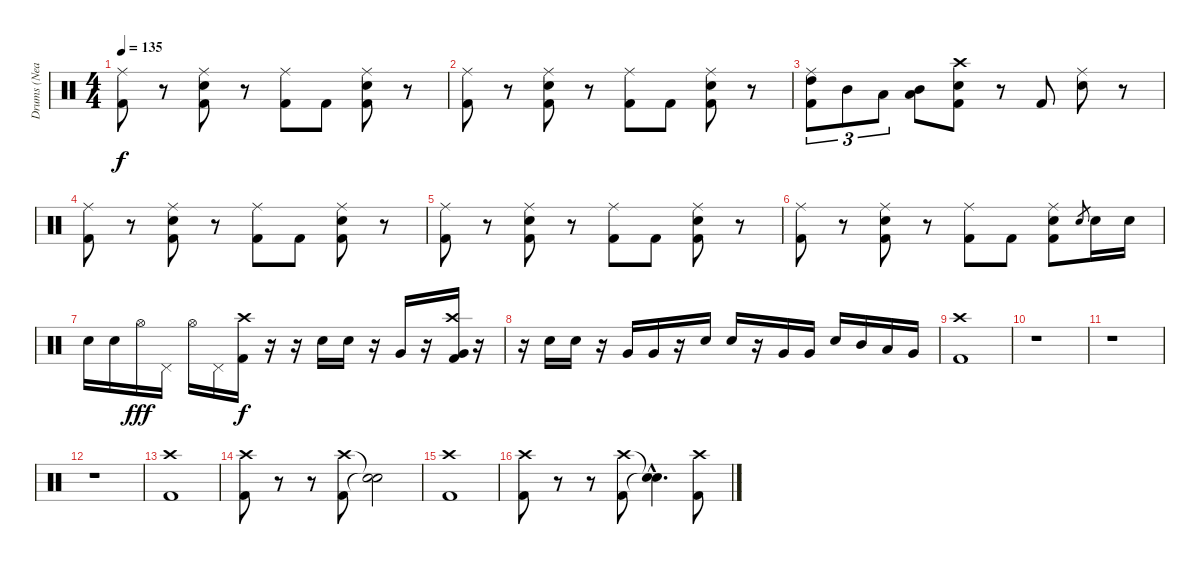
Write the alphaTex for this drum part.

\track ("Drums (Neal Peart)" "Drums (Nea") {instrument percussion}
\staff {score}
\articulation defaults
\ts (4 4)
\tempo 135
\clef neutral
\ks c
("Ride (middle)" "Kick (hit) 2").8{dy f} r.8 ("Ride (middle)" "Electric Snare (hit)" "Kick (hit) 2").8 r.8 ("Ride (middle)" "Kick (hit) 2").8 "Kick (hit) 2".8 ("Ride (middle)" "Electric Snare (hit)" "Kick (hit) 2").8 r.8 |
("Ride (middle)" "Kick (hit) 2").8 r.8 ("Ride (middle)" "Electric Snare (hit)" "Kick (hit) 2").8 r.8 ("Ride (middle)" "Kick (hit) 2").8 "Kick (hit) 2".8 ("Ride (middle)" "Electric Snare (hit)" "Kick (hit) 2").8 r.8 |
("Ride (middle)" "High Tom (hit)" "Kick (hit) 2").8{tu (3 2)} "Mid Tom (hit)".8{tu (3 2)} "Low Tom (hit)".8{tu (3 2)} ("Low Tom (hit)" "Mid Tom (hit)").8 ("Crash high (hit)" "Electric Snare (hit)" "Kick (hit) 2").8 r.8 "Kick (hit) 2".8 ("Ride (middle)" "Electric Snare (hit)").8 r.8 |
("Ride (middle)" "Kick (hit) 2").8 r.8 ("Ride (middle)" "Electric Snare (hit)" "Kick (hit) 2").8 r.8 ("Ride (middle)" "Kick (hit) 2").8 "Kick (hit) 2".8 ("Ride (middle)" "Electric Snare (hit)" "Kick (hit) 2").8 r.8 |
("Ride (middle)" "Kick (hit) 2").8 r.8 ("Ride (middle)" "Electric Snare (hit)" "Kick (hit) 2").8 r.8 ("Ride (middle)" "Kick (hit) 2").8 "Kick (hit) 2".8 ("Ride (middle)" "Electric Snare (hit)" "Kick (hit) 2").8 r.8 |
("Ride (middle)" "Kick (hit) 2").8 r.8 ("Ride (middle)" "Electric Snare (hit)" "Kick (hit) 2").8 r.8 ("Ride (middle)" "Kick (hit) 2").8 "Kick (hit) 2".8 ("Ride (middle)" "Electric Snare (hit)" "Kick (hit) 2").8 "Electric Snare (hit)".8{gr} "Electric Snare (hit)".16 "Electric Snare (hit)".16 |
"Electric Snare (hit)".16 "Electric Snare (hit)".16 "Hi-Hat (open)".16{dy fff} "Pedal Hi-Hat (hit)".16 "Hi-Hat (open)".16 "Pedal Hi-Hat (hit)".16 ("Crash high (hit)" "Kick (hit) 2").16{dy f} r.16 r.16 "Electric Snare (hit)".16 "Electric Snare (hit)".16 r.16 "Very Low Tom (hit)".16 r.16 ("Crash high (hit)" "Very Low Tom (hit)" "Kick (hit) 2").16 r.16 |
r.16 "Electric Snare (hit)".16 "Electric Snare (hit)".16 r.16 "Very Low Tom (hit)".16 "Very Low Tom (hit)".16 r.16 "Electric Snare (hit)".16 "Electric Snare (hit)".16 r.16 "Very Low Tom (hit)".16 "Very Low Tom (hit)".16 "Electric Snare (hit)".16 "Mid Tom (hit)".16 "Low Tom (hit)".16 "Very Low Tom (hit)".16 |
("Crash high (hit)" "Kick (hit) 2").1 |
r.1 |
r.1 |
r.1 |
("Crash high (hit)" "Kick (hit) 2").1 |
("Crash high (hit)" "Kick (hit) 2").8 r.8{volume 0} r.8 ("Crash high (hit)" "Kick (hit) 2").8{volume 16} ("Snare (hit)"{t} "Snare (hit)"{t}).2 |
("Crash high (hit)" "Kick (hit) 2").1 |
("Crash high (hit)" "Kick (hit) 2").8 r.8{volume 0} r.8 ("Crash high (hit)" "Kick (hit) 2").8{volume 16} ("Snare (hit)"{hac t} "Snare (hit)"{hac t}).4{d} ("Crash high (hit)" "Kick (hit) 2").8
